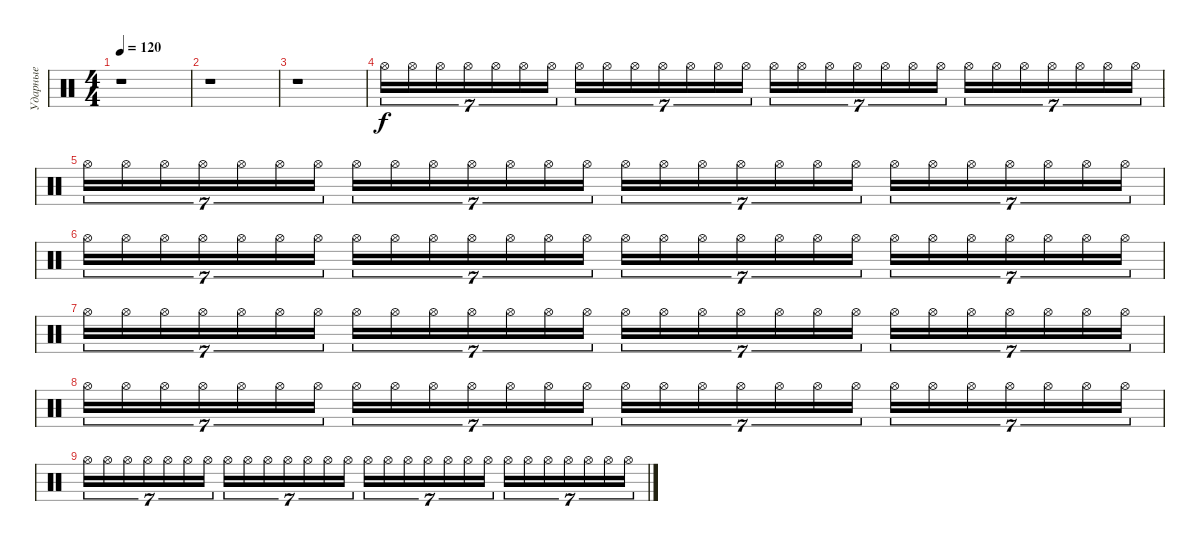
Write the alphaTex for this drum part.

\track ("Ударные" "Ударные") {instrument percussion}
\staff
\articulation defaults
\ts (4 4)
\tempo 120
\clef neutral
\ks c
r.1{dy f} |
r.1 |
r.1 |
"Hi-Hat (open)".16{tu (7 4) volume 1} "Hi-Hat (open)".16{tu (7 4) volume 10} "Hi-Hat (open)".16{tu (7 4)} "Hi-Hat (open)".16{tu (7 4)} "Hi-Hat (open)".16{tu (7 4)} "Hi-Hat (open)".16{tu (7 4)} "Hi-Hat (open)".16{tu (7 4)} "Hi-Hat (open)".16{tu (7 4)} "Hi-Hat (open)".16{tu (7 4)} "Hi-Hat (open)".16{tu (7 4)} "Hi-Hat (open)".16{tu (7 4)} "Hi-Hat (open)".16{tu (7 4)} "Hi-Hat (open)".16{tu (7 4)} "Hi-Hat (open)".16{tu (7 4)} "Hi-Hat (open)".16{tu (7 4)} "Hi-Hat (open)".16{tu (7 4)} "Hi-Hat (open)".16{tu (7 4)} "Hi-Hat (open)".16{tu (7 4)} "Hi-Hat (open)".16{tu (7 4)} "Hi-Hat (open)".16{tu (7 4)} "Hi-Hat (open)".16{tu (7 4)} "Hi-Hat (open)".16{tu (7 4)} "Hi-Hat (open)".16{tu (7 4)} "Hi-Hat (open)".16{tu (7 4)} "Hi-Hat (open)".16{tu (7 4)} "Hi-Hat (open)".16{tu (7 4)} "Hi-Hat (open)".16{tu (7 4)} "Hi-Hat (open)".16{tu (7 4)} |
"Hi-Hat (open)".16{tu (7 4)} "Hi-Hat (open)".16{tu (7 4)} "Hi-Hat (open)".16{tu (7 4)} "Hi-Hat (open)".16{tu (7 4)} "Hi-Hat (open)".16{tu (7 4)} "Hi-Hat (open)".16{tu (7 4)} "Hi-Hat (open)".16{tu (7 4)} "Hi-Hat (open)".16{tu (7 4)} "Hi-Hat (open)".16{tu (7 4)} "Hi-Hat (open)".16{tu (7 4)} "Hi-Hat (open)".16{tu (7 4)} "Hi-Hat (open)".16{tu (7 4)} "Hi-Hat (open)".16{tu (7 4)} "Hi-Hat (open)".16{tu (7 4)} "Hi-Hat (open)".16{tu (7 4)} "Hi-Hat (open)".16{tu (7 4)} "Hi-Hat (open)".16{tu (7 4)} "Hi-Hat (open)".16{tu (7 4)} "Hi-Hat (open)".16{tu (7 4)} "Hi-Hat (open)".16{tu (7 4)} "Hi-Hat (open)".16{tu (7 4)} "Hi-Hat (open)".16{tu (7 4)} "Hi-Hat (open)".16{tu (7 4)} "Hi-Hat (open)".16{tu (7 4)} "Hi-Hat (open)".16{tu (7 4)} "Hi-Hat (open)".16{tu (7 4)} "Hi-Hat (open)".16{tu (7 4)} "Hi-Hat (open)".16{tu (7 4)} |
"Hi-Hat (open)".16{tu (7 4)} "Hi-Hat (open)".16{tu (7 4)} "Hi-Hat (open)".16{tu (7 4)} "Hi-Hat (open)".16{tu (7 4)} "Hi-Hat (open)".16{tu (7 4)} "Hi-Hat (open)".16{tu (7 4)} "Hi-Hat (open)".16{tu (7 4)} "Hi-Hat (open)".16{tu (7 4)} "Hi-Hat (open)".16{tu (7 4)} "Hi-Hat (open)".16{tu (7 4)} "Hi-Hat (open)".16{tu (7 4)} "Hi-Hat (open)".16{tu (7 4)} "Hi-Hat (open)".16{tu (7 4)} "Hi-Hat (open)".16{tu (7 4)} "Hi-Hat (open)".16{tu (7 4)} "Hi-Hat (open)".16{tu (7 4)} "Hi-Hat (open)".16{tu (7 4)} "Hi-Hat (open)".16{tu (7 4)} "Hi-Hat (open)".16{tu (7 4)} "Hi-Hat (open)".16{tu (7 4)} "Hi-Hat (open)".16{tu (7 4)} "Hi-Hat (open)".16{tu (7 4)} "Hi-Hat (open)".16{tu (7 4)} "Hi-Hat (open)".16{tu (7 4)} "Hi-Hat (open)".16{tu (7 4)} "Hi-Hat (open)".16{tu (7 4)} "Hi-Hat (open)".16{tu (7 4)} "Hi-Hat (open)".16{tu (7 4)} |
"Hi-Hat (open)".16{tu (7 4)} "Hi-Hat (open)".16{tu (7 4)} "Hi-Hat (open)".16{tu (7 4)} "Hi-Hat (open)".16{tu (7 4)} "Hi-Hat (open)".16{tu (7 4)} "Hi-Hat (open)".16{tu (7 4)} "Hi-Hat (open)".16{tu (7 4)} "Hi-Hat (open)".16{tu (7 4)} "Hi-Hat (open)".16{tu (7 4)} "Hi-Hat (open)".16{tu (7 4)} "Hi-Hat (open)".16{tu (7 4)} "Hi-Hat (open)".16{tu (7 4)} "Hi-Hat (open)".16{tu (7 4)} "Hi-Hat (open)".16{tu (7 4)} "Hi-Hat (open)".16{tu (7 4)} "Hi-Hat (open)".16{tu (7 4)} "Hi-Hat (open)".16{tu (7 4)} "Hi-Hat (open)".16{tu (7 4)} "Hi-Hat (open)".16{tu (7 4)} "Hi-Hat (open)".16{tu (7 4)} "Hi-Hat (open)".16{tu (7 4)} "Hi-Hat (open)".16{tu (7 4)} "Hi-Hat (open)".16{tu (7 4)} "Hi-Hat (open)".16{tu (7 4)} "Hi-Hat (open)".16{tu (7 4)} "Hi-Hat (open)".16{tu (7 4)} "Hi-Hat (open)".16{tu (7 4)} "Hi-Hat (open)".16{tu (7 4)} |
"Hi-Hat (open)".16{tu (7 4) volume 0} "Hi-Hat (open)".16{tu (7 4)} "Hi-Hat (open)".16{tu (7 4)} "Hi-Hat (open)".16{tu (7 4)} "Hi-Hat (open)".16{tu (7 4)} "Hi-Hat (open)".16{tu (7 4)} "Hi-Hat (open)".16{tu (7 4)} "Hi-Hat (open)".16{tu (7 4)} "Hi-Hat (open)".16{tu (7 4)} "Hi-Hat (open)".16{tu (7 4)} "Hi-Hat (open)".16{tu (7 4)} "Hi-Hat (open)".16{tu (7 4)} "Hi-Hat (open)".16{tu (7 4)} "Hi-Hat (open)".16{tu (7 4)} "Hi-Hat (open)".16{tu (7 4)} "Hi-Hat (open)".16{tu (7 4)} "Hi-Hat (open)".16{tu (7 4)} "Hi-Hat (open)".16{tu (7 4)} "Hi-Hat (open)".16{tu (7 4)} "Hi-Hat (open)".16{tu (7 4)} "Hi-Hat (open)".16{tu (7 4)} "Hi-Hat (open)".16{tu (7 4)} "Hi-Hat (open)".16{tu (7 4)} "Hi-Hat (open)".16{tu (7 4)} "Hi-Hat (open)".16{tu (7 4)} "Hi-Hat (open)".16{tu (7 4)} "Hi-Hat (open)".16{tu (7 4)} "Hi-Hat (open)".16{tu (7 4)} |
"Hi-Hat (open)".16{tu (7 4)} "Hi-Hat (open)".16{tu (7 4)} "Hi-Hat (open)".16{tu (7 4)} "Hi-Hat (open)".16{tu (7 4)} "Hi-Hat (open)".16{tu (7 4)} "Hi-Hat (open)".16{tu (7 4)} "Hi-Hat (open)".16{tu (7 4)} "Hi-Hat (open)".16{tu (7 4)} "Hi-Hat (open)".16{tu (7 4)} "Hi-Hat (open)".16{tu (7 4)} "Hi-Hat (open)".16{tu (7 4)} "Hi-Hat (open)".16{tu (7 4)} "Hi-Hat (open)".16{tu (7 4)} "Hi-Hat (open)".16{tu (7 4)} "Hi-Hat (open)".16{tu (7 4)} "Hi-Hat (open)".16{tu (7 4)} "Hi-Hat (open)".16{tu (7 4)} "Hi-Hat (open)".16{tu (7 4)} "Hi-Hat (open)".16{tu (7 4)} "Hi-Hat (open)".16{tu (7 4)} "Hi-Hat (open)".16{tu (7 4)} "Hi-Hat (open)".16{tu (7 4)} "Hi-Hat (open)".16{tu (7 4)} "Hi-Hat (open)".16{tu (7 4)} "Hi-Hat (open)".16{tu (7 4)} "Hi-Hat (open)".16{tu (7 4)} "Hi-Hat (open)".16{tu (7 4)} "Hi-Hat (open)".16{tu (7 4)}
